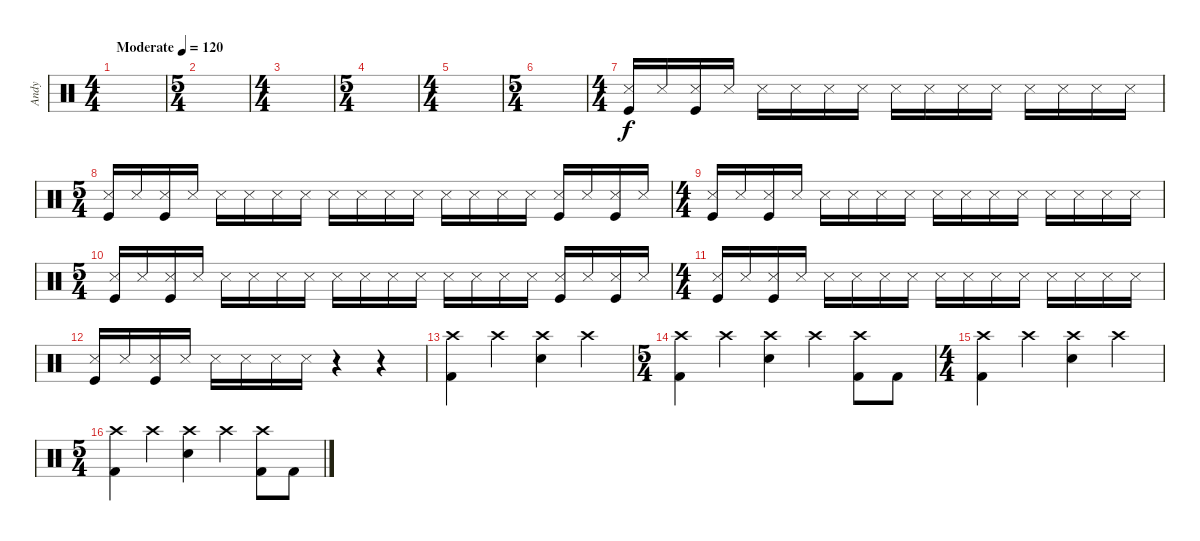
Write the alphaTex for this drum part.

\track ("Andy" "Andy") {instrument percussion}
\staff {score}
\articulation defaults
\ts (4 4)
\tempo (120 "Moderate")
\clef neutral
\ks c
|
\ts (5 4)
|
\ts (4 4)
|
\ts (5 4)
|
\ts (4 4)
|
\ts (5 4)
|
\ts (4 4)
("Kick (hit)" "Snare (side stick) 3").16 "Snare (side stick) 3".16 ("Kick (hit)" "Snare (side stick) 3").16 "Snare (side stick) 3".16 "Snare (side stick) 3".16 "Snare (side stick) 3".16 "Snare (side stick) 3".16 "Snare (side stick) 3".16 "Snare (side stick) 3".16 "Snare (side stick) 3".16 "Snare (side stick) 3".16 "Snare (side stick) 3".16 "Snare (side stick) 3".16 "Snare (side stick) 3".16 "Snare (side stick) 3".16 "Snare (side stick) 3".16 |
\ts (5 4)
("Kick (hit)" "Snare (side stick) 3").16 "Snare (side stick) 3".16 ("Kick (hit)" "Snare (side stick) 3").16 "Snare (side stick) 3".16 "Snare (side stick) 3".16 "Snare (side stick) 3".16 "Snare (side stick) 3".16 "Snare (side stick) 3".16 "Snare (side stick) 3".16 "Snare (side stick) 3".16 "Snare (side stick) 3".16 "Snare (side stick) 3".16 "Snare (side stick) 3".16 "Snare (side stick) 3".16 "Snare (side stick) 3".16 "Snare (side stick) 3".16 ("Snare (side stick) 3" "Kick (hit)").16 "Snare (side stick) 3".16 ("Kick (hit)" "Snare (side stick) 3").16 "Snare (side stick) 3".16 |
\ts (4 4)
("Kick (hit)" "Snare (side stick) 3").16 "Snare (side stick) 3".16 ("Kick (hit)" "Snare (side stick) 3").16 "Snare (side stick) 3".16 "Snare (side stick) 3".16 "Snare (side stick) 3".16 "Snare (side stick) 3".16 "Snare (side stick) 3".16 "Snare (side stick) 3".16 "Snare (side stick) 3".16 "Snare (side stick) 3".16 "Snare (side stick) 3".16 "Snare (side stick) 3".16 "Snare (side stick) 3".16 "Snare (side stick) 3".16 "Snare (side stick) 3".16 |
\ts (5 4)
("Kick (hit)" "Snare (side stick) 3").16 "Snare (side stick) 3".16 ("Kick (hit)" "Snare (side stick) 3").16 "Snare (side stick) 3".16 "Snare (side stick) 3".16 "Snare (side stick) 3".16 "Snare (side stick) 3".16 "Snare (side stick) 3".16 "Snare (side stick) 3".16 "Snare (side stick) 3".16 "Snare (side stick) 3".16 "Snare (side stick) 3".16 "Snare (side stick) 3".16 "Snare (side stick) 3".16 "Snare (side stick) 3".16 "Snare (side stick) 3".16 ("Snare (side stick) 3" "Kick (hit)").16 "Snare (side stick) 3".16 ("Kick (hit)" "Snare (side stick) 3").16 "Snare (side stick) 3".16 |
\ts (4 4)
("Kick (hit)" "Snare (side stick) 3").16 "Snare (side stick) 3".16 ("Kick (hit)" "Snare (side stick) 3").16 "Snare (side stick) 3".16 "Snare (side stick) 3".16 "Snare (side stick) 3".16 "Snare (side stick) 3".16 "Snare (side stick) 3".16 "Snare (side stick) 3".16 "Snare (side stick) 3".16 "Snare (side stick) 3".16 "Snare (side stick) 3".16 "Snare (side stick) 3".16 "Snare (side stick) 3".16 "Snare (side stick) 3".16 "Snare (side stick) 3".16 |
("Kick (hit)" "Snare (side stick) 3").16 "Snare (side stick) 3".16 ("Kick (hit)" "Snare (side stick) 3").16 "Snare (side stick) 3".16 "Snare (side stick) 3".16 "Snare (side stick) 3".16 "Snare (side stick) 3".16 "Snare (side stick) 3".16 r.4 r.4 |
("Crash high (hit)" "Kick (hit) 2").4 "Crash high (hit)".4 ("Crash high (hit)" "Snare (hit) 2").4 "Crash high (hit)".4 |
\ts (5 4)
("Crash high (hit)" "Kick (hit) 2").4 "Crash high (hit)".4 ("Crash high (hit)" "Snare (hit) 2").4 "Crash high (hit)".4 ("Crash high (hit)" "Kick (hit) 2").8 "Kick (hit) 2".8 |
\ts (4 4)
("Crash high (hit)" "Kick (hit) 2").4 "Crash high (hit)".4 ("Crash high (hit)" "Snare (hit) 2").4 "Crash high (hit)".4 |
\ts (5 4)
("Crash high (hit)" "Kick (hit) 2").4 "Crash high (hit)".4 ("Crash high (hit)" "Snare (hit) 2").4 "Crash high (hit)".4 ("Crash high (hit)" "Kick (hit) 2").8 "Kick (hit) 2".8
